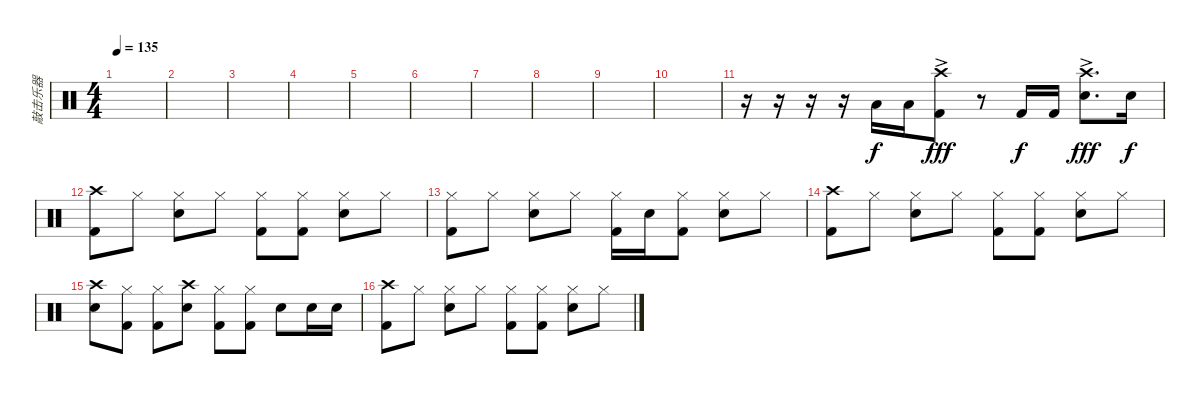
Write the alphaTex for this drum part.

\track ("敲击乐器" "敲击乐器") {instrument percussion}
\staff {score}
\articulation defaults
\ts (4 4)
\tempo 135
\clef neutral
\ks c
|
|
|
|
|
|
|
|
|
|
r.16 r.16 r.16 r.16 "Low Tom (hit)".16 "Low Tom (hit)".16 ("Crash high (hit)"{ac} "Kick (hit) 2"{ac}).8{dy fff} r.8 "Kick (hit) 2".16{dy f} "Kick (hit) 2".16 ("Crash high (hit)"{ac} "Snare (hit) 2"{ac}).8{d dy fff} "Snare (hit) 2".16{dy f} |
("Crash high (hit)" "Kick (hit) 2").8 "Hi-Hat (closed)".8 ("Hi-Hat (closed)" "Electric Snare (hit)").8 "Hi-Hat (closed)".8 ("Hi-Hat (closed)" "Kick (hit) 2").8 ("Hi-Hat (closed)" "Kick (hit) 2").8 ("Hi-Hat (closed)" "Electric Snare (hit)").8 "Hi-Hat (closed)".8 |
("Hi-Hat (closed)" "Kick (hit) 2").8 "Hi-Hat (closed)".8 ("Hi-Hat (closed)" "Electric Snare (hit)").8 "Hi-Hat (closed)".8 ("Hi-Hat (closed)" "Kick (hit) 2").16 "Electric Snare (hit)".16 ("Hi-Hat (closed)" "Kick (hit) 2").8 ("Hi-Hat (closed)" "Electric Snare (hit)").8 "Hi-Hat (closed)".8 |
("Crash high (hit)" "Kick (hit) 2").8 "Hi-Hat (closed)".8 ("Hi-Hat (closed)" "Electric Snare (hit)").8 "Hi-Hat (closed)".8 ("Hi-Hat (closed)" "Kick (hit) 2").8 ("Hi-Hat (closed)" "Kick (hit) 2").8 ("Hi-Hat (closed)" "Electric Snare (hit)").8 "Hi-Hat (closed)".8 |
("Crash high (hit)" "Electric Snare (hit)").8 ("Hi-Hat (closed)" "Kick (hit) 2").8 ("Hi-Hat (closed)" "Kick (hit) 2").8 ("Crash high (hit)" "Electric Snare (hit)").8 ("Hi-Hat (closed)" "Kick (hit) 2").8 ("Hi-Hat (closed)" "Kick (hit) 2").8 "Electric Snare (hit)".8 "Electric Snare (hit)".16 "Electric Snare (hit)".16 |
("Crash high (hit)" "Kick (hit) 2").8 "Hi-Hat (closed)".8 ("Hi-Hat (closed)" "Electric Snare (hit)").8 "Hi-Hat (closed)".8 ("Hi-Hat (closed)" "Kick (hit) 2").8 ("Hi-Hat (closed)" "Kick (hit) 2").8 ("Hi-Hat (closed)" "Electric Snare (hit)").8 "Hi-Hat (closed)".8
